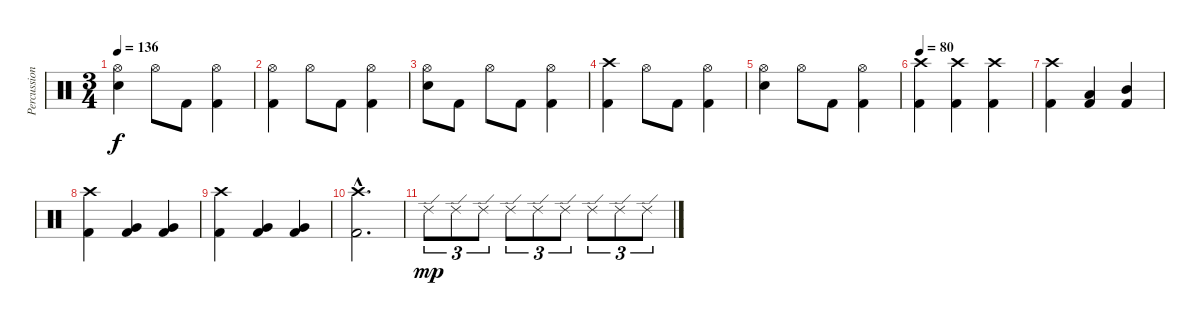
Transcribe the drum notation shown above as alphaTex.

\track ("Percussion" "Percussion") {instrument percussion}
\staff {score}
\articulation defaults
\ts (3 4)
\tempo 136
\clef neutral
\ks c
("Hi-Hat (open)" "Snare (hit) 2").4{dy f} "Hi-Hat (open)".8 "Kick (hit) 2".8 ("Hi-Hat (open)" "Kick (hit) 2").4 |
("Hi-Hat (open)" "Kick (hit) 2").4 "Hi-Hat (open)".8 "Kick (hit) 2".8 ("Hi-Hat (open)" "Kick (hit) 2").4 |
("Hi-Hat (open)" "Snare (hit) 2").8 "Kick (hit) 2".8 "Hi-Hat (open)".8 "Kick (hit) 2".8 ("Hi-Hat (open)" "Kick (hit) 2").4 |
("Crash high (hit)" "Kick (hit) 2").4 "Hi-Hat (open)".8 "Kick (hit) 2".8 ("Hi-Hat (open)" "Kick (hit) 2").4 |
("Hi-Hat (open)" "Snare (hit) 2").4 "Hi-Hat (open)".8 "Kick (hit) 2".8 ("Hi-Hat (open)" "Kick (hit) 2").4 |
\tempo 80
("Crash high (hit)" "Kick (hit) 2").4 ("Crash high (hit)" "Kick (hit) 2").4 ("Crash high (hit)" "Kick (hit) 2").4 |
("Crash high (hit)" "Kick (hit) 2").4 ("Low Tom (hit)" "Kick (hit) 2").4{bd 240} ("Mid Tom (hit)" "Kick (hit) 2").4{bd 240} |
("Crash high (hit)" "Kick (hit) 2").4 ("Very Low Tom (hit)" "Kick (hit) 2").4{bd 240} ("Very Low Tom (hit)" "Kick (hit) 2").4{bd 240} |
("Crash high (hit)" "Kick (hit) 2").4 ("Very Low Tom (hit)" "Kick (hit) 2").4{bd 240} ("Very Low Tom (hit)" "Kick (hit) 2").4{bd 240} |
("Crash high (hit)"{hac} "Kick (hit) 2"{hac}).2{d} |
"Ride (edge) 2".8{tu (3 2) dy mp} "Ride (edge) 2".8{tu (3 2)} "Ride (edge) 2".8{tu (3 2)} "Ride (edge) 2".8{tu (3 2)} "Ride (edge) 2".8{tu (3 2)} "Ride (edge) 2".8{tu (3 2)} "Ride (edge) 2".8{tu (3 2)} "Ride (edge) 2".8{tu (3 2)} "Ride (edge) 2".8{tu (3 2)}
